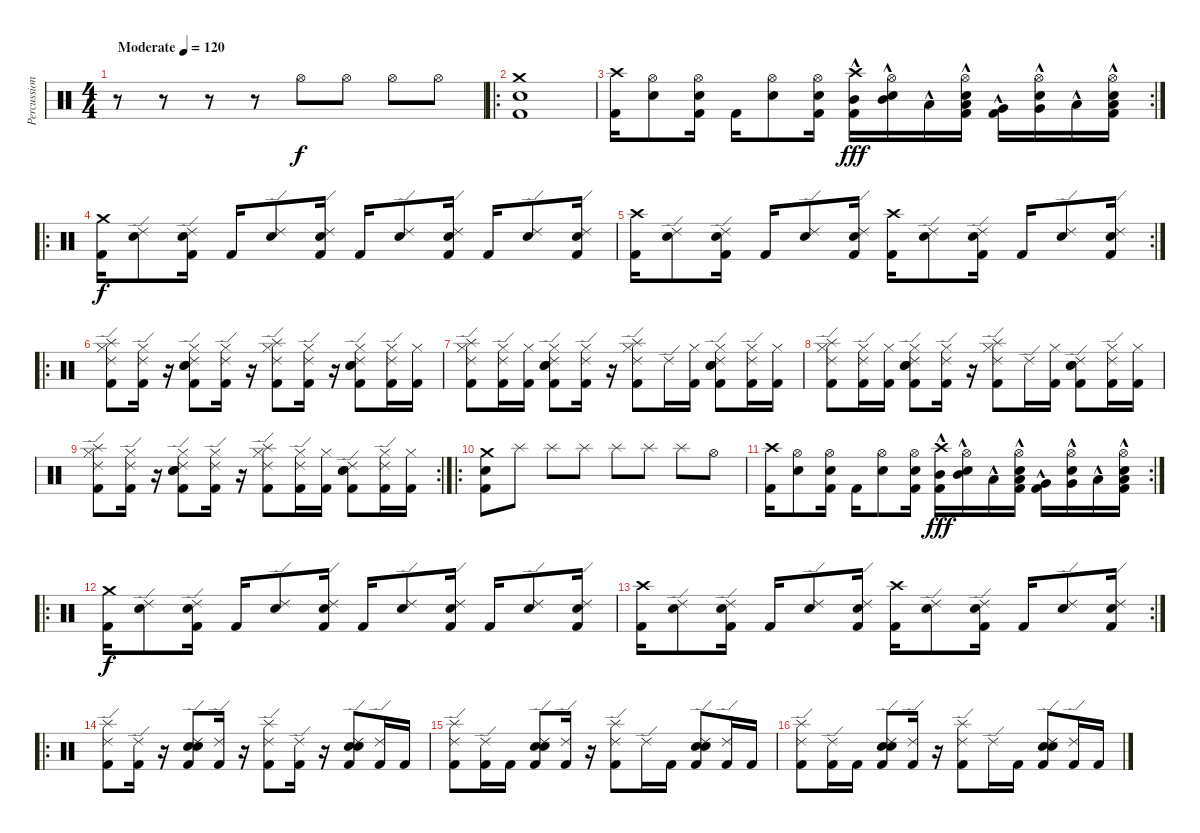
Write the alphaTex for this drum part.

\track ("Percussion" "Percussion") {instrument percussion}
\staff {score}
\articulation defaults
\ts (4 4)
\tempo (120 "Moderate")
\clef neutral
\ks c
r.8{dy f} r.8 r.8 r.8 "Hi-Hat (open)".8 "Hi-Hat (open)".8 "Hi-Hat (open)".8 "Hi-Hat (open)".8 |
\ro
("Kick (hit) 2" "Snare (hit) 2" "Crash medium (hit)").1 |
\rc 2
("Crash high (hit)" "Kick (hit) 2").16 ("Hi-Hat (open)" "Electric Snare (hit)").8 ("Hi-Hat (open)" "Electric Snare (hit)" "Kick (hit) 2").16 "Kick (hit) 2".16 ("Hi-Hat (open)" "Electric Snare (hit)").8 ("Hi-Hat (open)" "Electric Snare (hit)" "Kick (hit) 2").16 ("Crash high (hit)" "Kick (hit) 2" "Mid Tom (hit)"{hac}).16{dy fff} ("Hi-Hat (open)" "Electric Snare (hit)" "Mid Tom (hit)"{hac}).16 "Low Tom (hit)"{hac}.16 ("Hi-Hat (open)" "Electric Snare (hit)" "Kick (hit) 2" "Low Tom (hit)"{hac}).16 ("Kick (hit) 2" "Very Low Tom (hit)"{hac}).16 ("Hi-Hat (open)" "Electric Snare (hit)" "Very Low Tom (hit)"{hac}).16 "Low Floor Tom (hit)"{hac}.16 ("Hi-Hat (open)" "Electric Snare (hit)" "Kick (hit) 2" "Low Floor Tom (hit)"{hac}).16 |
\ro
("Crash medium (hit)" "Kick (hit) 2").16{dy f} ("Ride (edge) 2" "Electric Snare (hit)").8 ("Ride (edge) 2" "Electric Snare (hit)" "Kick (hit) 2").16 "Kick (hit) 2".16 ("Ride (edge) 2" "Electric Snare (hit)").8 ("Ride (edge) 2" "Electric Snare (hit)" "Kick (hit) 2").16 "Kick (hit) 2".16 ("Ride (edge) 2" "Electric Snare (hit)").8 ("Ride (edge) 2" "Electric Snare (hit)" "Kick (hit) 2").16 "Kick (hit) 2".16 ("Ride (edge) 2" "Electric Snare (hit)").8 ("Ride (edge) 2" "Electric Snare (hit)" "Kick (hit) 2").16 |
\rc 2
("Crash high (hit)" "Kick (hit) 2").16 ("Ride (edge) 2" "Electric Snare (hit)").8 ("Ride (edge) 2" "Electric Snare (hit)" "Kick (hit) 2").16 "Kick (hit) 2".16 ("Ride (edge) 2" "Electric Snare (hit)").8 ("Ride (edge) 2" "Electric Snare (hit)" "Kick (hit) 2").16 ("Crash high (hit)" "Kick (hit) 2").16 ("Ride (edge) 2" "Electric Snare (hit)").8 ("Ride (edge) 2" "Electric Snare (hit)" "Kick (hit) 2").16 "Kick (hit) 2".16 ("Ride (edge) 2" "Electric Snare (hit)").8 ("Ride (edge) 2" "Electric Snare (hit)" "Kick (hit) 2").16 |
\ro
("Ride (edge) 2" "Splash (hit)" "Hi-Hat (closed)" "Kick (hit) 2").8 ("Ride (edge) 2" "Hi-Hat (closed)" "Kick (hit) 2").16 r.16 ("Ride (edge) 2" "Hi-Hat (closed)" "Snare (hit) 2" "Electric Snare (hit)" "Kick (hit) 2").8 ("Ride (edge) 2" "Hi-Hat (closed)" "Kick (hit) 2").16 r.16 ("Ride (edge) 2" "Splash (hit)" "Hi-Hat (closed)" "Kick (hit) 2").8 ("Ride (edge) 2" "Hi-Hat (closed)" "Kick (hit) 2").16 r.16 ("Ride (edge) 2" "Hi-Hat (closed)" "Snare (hit) 2" "Electric Snare (hit)" "Kick (hit) 2").8 ("Ride (edge) 2" "Hi-Hat (closed)" "Kick (hit) 2").16 ("Hi-Hat (closed)" "Kick (hit) 2").16 |
("Ride (edge) 2" "Splash (hit)" "Hi-Hat (closed)" "Kick (hit) 2").8 ("Ride (edge) 2" "Hi-Hat (closed)" "Kick (hit) 2").16 ("Hi-Hat (closed)" "Kick (hit) 2").16 ("Ride (edge) 2" "Hi-Hat (closed)" "Electric Snare (hit)" "Snare (hit) 2" "Kick (hit) 2").8 ("Ride (edge) 2" "Hi-Hat (closed)" "Kick (hit) 2").16 r.16 ("Ride (edge) 2" "Splash (hit)" "Hi-Hat (closed)" "Kick (hit) 2").8 "Ride (edge) 2".16 ("Hi-Hat (closed)" "Kick (hit) 2").16 ("Ride (edge) 2" "Hi-Hat (closed)" "Electric Snare (hit)" "Snare (hit) 2" "Kick (hit) 2").8 ("Ride (edge) 2" "Hi-Hat (closed)" "Kick (hit) 2").16 ("Hi-Hat (closed)" "Kick (hit) 2").16 |
("Ride (edge) 2" "Splash (hit)" "Hi-Hat (closed)" "Kick (hit) 2").8 ("Ride (edge) 2" "Hi-Hat (closed)" "Kick (hit) 2").16 ("Hi-Hat (closed)" "Kick (hit) 2").16 ("Ride (edge) 2" "Hi-Hat (closed)" "Electric Snare (hit)" "Snare (hit) 2" "Kick (hit) 2").8 ("Ride (edge) 2" "Hi-Hat (closed)" "Kick (hit) 2").16 r.16 ("Ride (edge) 2" "Splash (hit)" "Hi-Hat (closed)" "Kick (hit) 2").8 "Ride (edge) 2".16 ("Hi-Hat (closed)" "Kick (hit) 2").16 ("Ride (edge) 2" "Electric Snare (hit)" "Snare (hit) 2" "Kick (hit) 2").8 ("Ride (edge) 2" "Hi-Hat (closed)" "Kick (hit) 2").16 ("Hi-Hat (closed)" "Kick (hit) 2").16 |
\rc 2
("Ride (edge) 2" "Splash (hit)" "Hi-Hat (closed)" "Kick (hit) 2").8 ("Ride (edge) 2" "Hi-Hat (closed)" "Kick (hit) 2").16 r.16 ("Ride (edge) 2" "Hi-Hat (closed)" "Snare (hit) 2" "Electric Snare (hit)" "Kick (hit) 2").8 ("Ride (edge) 2" "Hi-Hat (closed)" "Kick (hit) 2").16 r.16 ("Ride (edge) 2" "Splash (hit)" "Hi-Hat (closed)" "Kick (hit) 2").8 ("Ride (edge) 2" "Hi-Hat (closed)" "Kick (hit) 2").16 ("Hi-Hat (closed)" "Kick (hit) 2").16 ("Ride (edge) 2" "Snare (hit) 2" "Electric Snare (hit)" "Kick (hit) 2").8 ("Ride (edge) 2" "Hi-Hat (closed)" "Kick (hit) 2").16 ("Hi-Hat (closed)" "Kick (hit) 2").16 |
\ro
("Kick (hit) 2" "Snare (hit) 2" "Crash medium (hit)").8 "Splash (hit)".8 "Splash (hit)".8 "Splash (hit)".8 "Splash (hit)".8 "Splash (hit)".8 "Splash (hit)".8 "Hi-Hat (open)".8 |
\rc 2
("Crash high (hit)" "Kick (hit) 2").16 ("Hi-Hat (open)" "Electric Snare (hit)").8 ("Hi-Hat (open)" "Electric Snare (hit)" "Kick (hit) 2").16 "Kick (hit) 2".16 ("Hi-Hat (open)" "Electric Snare (hit)").8 ("Hi-Hat (open)" "Electric Snare (hit)" "Kick (hit) 2").16 ("Crash high (hit)" "Kick (hit) 2" "Mid Tom (hit)"{hac}).16{dy fff} ("Hi-Hat (open)" "Electric Snare (hit)" "Mid Tom (hit)"{hac}).16 "Low Tom (hit)"{hac}.16 ("Hi-Hat (open)" "Electric Snare (hit)" "Kick (hit) 2" "Low Tom (hit)"{hac}).16 ("Kick (hit) 2" "Very Low Tom (hit)"{hac}).16 ("Hi-Hat (open)" "Electric Snare (hit)" "Very Low Tom (hit)"{hac}).16 "Low Floor Tom (hit)"{hac}.16 ("Hi-Hat (open)" "Electric Snare (hit)" "Kick (hit) 2" "Low Floor Tom (hit)"{hac}).16 |
\ro
("Crash medium (hit)" "Kick (hit) 2").16{dy f} ("Ride (edge) 2" "Electric Snare (hit)").8 ("Ride (edge) 2" "Electric Snare (hit)" "Kick (hit) 2").16 "Kick (hit) 2".16 ("Ride (edge) 2" "Electric Snare (hit)").8 ("Ride (edge) 2" "Electric Snare (hit)" "Kick (hit) 2").16 "Kick (hit) 2".16 ("Ride (edge) 2" "Electric Snare (hit)").8 ("Ride (edge) 2" "Electric Snare (hit)" "Kick (hit) 2").16 "Kick (hit) 2".16 ("Ride (edge) 2" "Electric Snare (hit)").8 ("Ride (edge) 2" "Electric Snare (hit)" "Kick (hit) 2").16 |
\rc 2
("Crash high (hit)" "Kick (hit) 2").16 ("Ride (edge) 2" "Electric Snare (hit)").8 ("Ride (edge) 2" "Electric Snare (hit)" "Kick (hit) 2").16 "Kick (hit) 2".16 ("Ride (edge) 2" "Electric Snare (hit)").8 ("Ride (edge) 2" "Electric Snare (hit)" "Kick (hit) 2").16 ("Crash high (hit)" "Kick (hit) 2").16 ("Ride (edge) 2" "Electric Snare (hit)").8 ("Ride (edge) 2" "Electric Snare (hit)" "Kick (hit) 2").16 "Kick (hit) 2".16 ("Ride (edge) 2" "Electric Snare (hit)").8 ("Ride (edge) 2" "Electric Snare (hit)" "Kick (hit) 2").16 |
\ro
("Ride (edge) 2" "Splash (hit)" "Kick (hit) 2").8 ("Ride (edge) 2" "Kick (hit) 2").16 r.16 ("Ride (edge) 2" "Snare (hit) 2" "Electric Snare (hit)" "Kick (hit) 2").8 ("Ride (edge) 2" "Kick (hit) 2").16 r.16 ("Ride (edge) 2" "Splash (hit)" "Kick (hit) 2").8 ("Ride (edge) 2" "Kick (hit) 2").16 r.16 ("Ride (edge) 2" "Snare (hit) 2" "Electric Snare (hit)" "Kick (hit) 2").8 ("Ride (edge) 2" "Kick (hit) 2").16 "Kick (hit) 2".16 |
("Ride (edge) 2" "Splash (hit)" "Kick (hit) 2").8 ("Ride (edge) 2" "Kick (hit) 2").16 "Kick (hit) 2".16 ("Ride (edge) 2" "Electric Snare (hit)" "Snare (hit) 2" "Kick (hit) 2").8 ("Ride (edge) 2" "Kick (hit) 2").16 r.16 ("Ride (edge) 2" "Splash (hit)" "Kick (hit) 2").8 "Ride (edge) 2".16 "Kick (hit) 2".16 ("Ride (edge) 2" "Electric Snare (hit)" "Snare (hit) 2" "Kick (hit) 2").8 ("Ride (edge) 2" "Kick (hit) 2").16 "Kick (hit) 2".16 |
("Ride (edge) 2" "Splash (hit)" "Kick (hit) 2").8 ("Ride (edge) 2" "Kick (hit) 2").16 "Kick (hit) 2".16 ("Ride (edge) 2" "Electric Snare (hit)" "Snare (hit) 2" "Kick (hit) 2").8 ("Ride (edge) 2" "Kick (hit) 2").16 r.16 ("Ride (edge) 2" "Splash (hit)" "Kick (hit) 2").8 "Ride (edge) 2".16 "Kick (hit) 2".16 ("Ride (edge) 2" "Electric Snare (hit)" "Snare (hit) 2" "Kick (hit) 2").8 ("Ride (edge) 2" "Kick (hit) 2").16 "Kick (hit) 2".16
